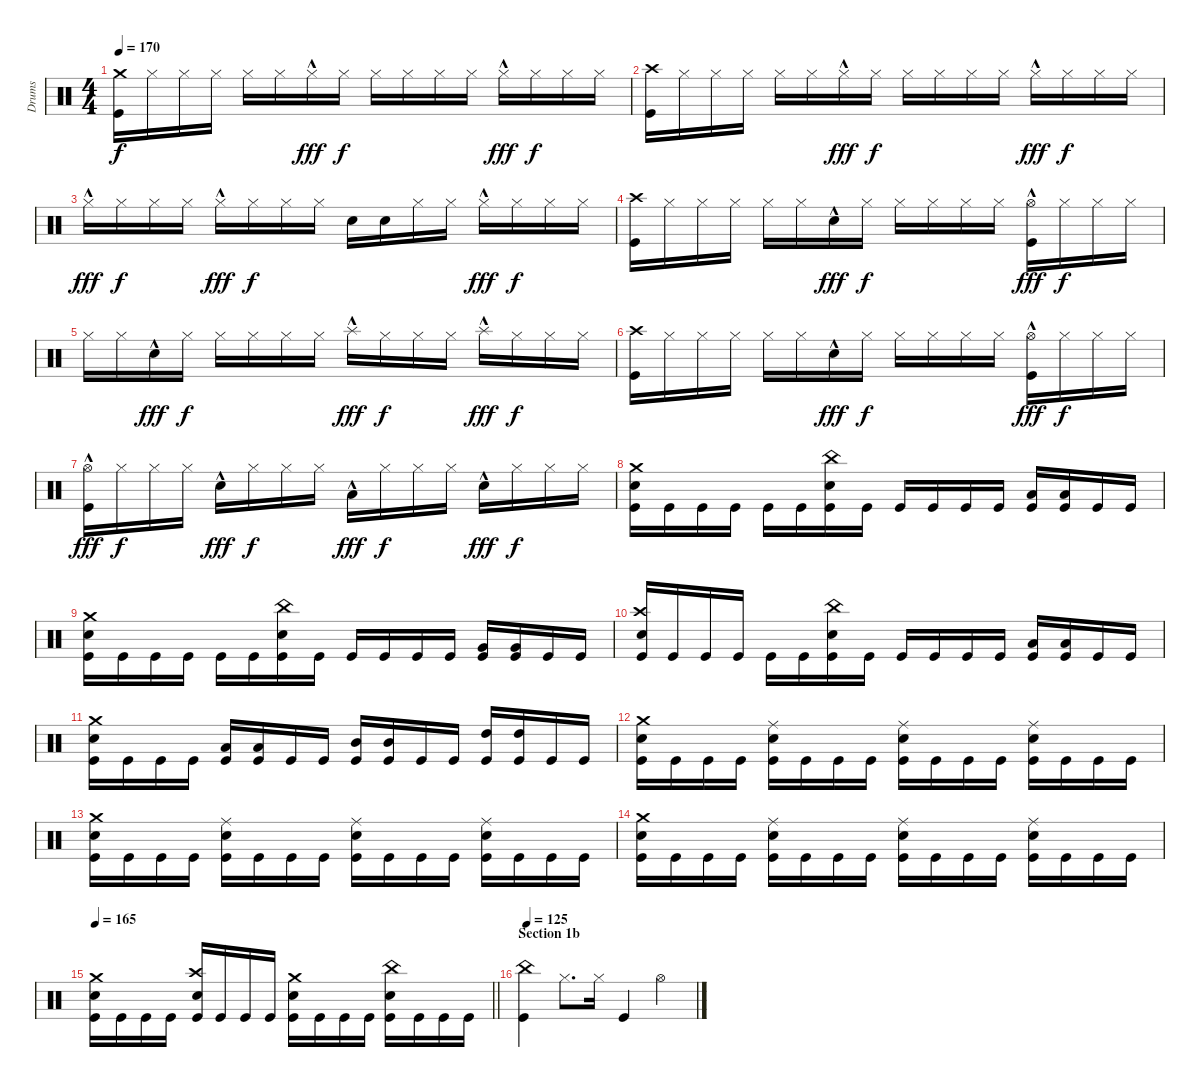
\track ("Drums" "Drums") {instrument percussion}
\staff {score}
\articulation defaults
\ts (4 4)
\tempo 170
\clef neutral
\ks c
("Crash medium (hit)" "Kick (hit)").16{dy f} "Hi-Hat (closed)".16 "Hi-Hat (closed)".16 "Hi-Hat (closed)".16 "Hi-Hat (closed)".16 "Hi-Hat (closed)".16 "Hi-Hat (closed)"{hac}.16{dy fff} "Hi-Hat (closed)".16{dy f} "Hi-Hat (closed)".16 "Hi-Hat (closed)".16 "Hi-Hat (closed)".16 "Hi-Hat (closed)".16 "Hi-Hat (closed)"{hac}.16{dy fff} "Hi-Hat (closed)".16{dy f} "Hi-Hat (closed)".16 "Hi-Hat (closed)".16 |
("Crash high (hit)" "Kick (hit)").16 "Hi-Hat (closed)".16 "Hi-Hat (closed)".16 "Hi-Hat (closed)".16 "Hi-Hat (closed)".16 "Hi-Hat (closed)".16 "Hi-Hat (closed)"{hac}.16{dy fff} "Hi-Hat (closed)".16{dy f} "Hi-Hat (closed)".16 "Hi-Hat (closed)".16 "Hi-Hat (closed)".16 "Hi-Hat (closed)".16 "Hi-Hat (closed)"{hac}.16{dy fff} "Hi-Hat (closed)".16{dy f} "Hi-Hat (closed)".16 "Hi-Hat (closed)".16 |
"Hi-Hat (closed)"{hac}.16{dy fff} "Hi-Hat (closed)".16{dy f} "Hi-Hat (closed)".16 "Hi-Hat (closed)".16 "Hi-Hat (closed)"{hac}.16{dy fff} "Hi-Hat (closed)".16{dy f} "Hi-Hat (closed)".16 "Hi-Hat (closed)".16 "Snare (hit) 2".16 "Snare (hit) 2".16 "Hi-Hat (closed)".16 "Hi-Hat (closed)".16 "Hi-Hat (closed)"{hac}.16{dy fff} "Hi-Hat (closed)".16{dy f} "Hi-Hat (closed)".16 "Hi-Hat (closed)".16 |
("Crash high (hit)" "Kick (hit)").16 "Hi-Hat (closed)".16 "Hi-Hat (closed)".16 "Hi-Hat (closed)".16 "Hi-Hat (closed)".16 "Hi-Hat (closed)".16 "Snare (hit) 2"{hac}.16{dy fff} "Hi-Hat (closed)".16{dy f} "Hi-Hat (closed)".16 "Hi-Hat (closed)".16 "Hi-Hat (closed)".16 "Hi-Hat (closed)".16 ("Hi-Hat (open)"{hac} "Kick (hit)"{hac}).16{dy fff} "Hi-Hat (closed)".16{dy f} "Hi-Hat (closed)".16 "Hi-Hat (closed)".16 |
"Hi-Hat (closed)".16 "Hi-Hat (closed)".16 "Snare (hit) 2"{hac}.16{dy fff} "Hi-Hat (closed)".16{dy f} "Hi-Hat (closed)".16 "Hi-Hat (closed)".16 "Hi-Hat (closed)".16 "Hi-Hat (closed)".16 "Splash (hit)"{hac}.16{dy fff} "Hi-Hat (closed)".16{dy f} "Hi-Hat (closed)".16 "Hi-Hat (closed)".16 "Splash (hit)"{hac}.16{dy fff} "Hi-Hat (closed)".16{dy f} "Hi-Hat (closed)".16 "Hi-Hat (closed)".16 |
("Crash high (hit)" "Kick (hit)").16 "Hi-Hat (closed)".16 "Hi-Hat (closed)".16 "Hi-Hat (closed)".16 "Hi-Hat (closed)".16 "Hi-Hat (closed)".16 "Snare (hit) 2"{hac}.16{dy fff} "Hi-Hat (closed)".16{dy f} "Hi-Hat (closed)".16 "Hi-Hat (closed)".16 "Hi-Hat (closed)".16 "Hi-Hat (closed)".16 ("Hi-Hat (open)"{hac} "Kick (hit)").16{dy fff} "Hi-Hat (closed)".16{dy f} "Hi-Hat (closed)".16 "Hi-Hat (closed)".16 |
("Hi-Hat (open)"{hac} "Kick (hit)").16{dy fff} "Hi-Hat (closed)".16{dy f} "Hi-Hat (closed)".16 "Hi-Hat (closed)".16 "Snare (hit) 2"{hac}.16{dy fff} "Hi-Hat (closed)".16{dy f} "Hi-Hat (closed)".16 "Hi-Hat (closed)".16 "Low Tom (hit)"{hac}.16{dy fff} "Hi-Hat (closed)".16{dy f} "Hi-Hat (closed)".16 "Hi-Hat (closed)".16 "Snare (hit) 2"{hac}.16{dy fff} "Hi-Hat (closed)".16{dy f} "Hi-Hat (closed)".16 "Hi-Hat (closed)".16 |
("Crash medium (hit)" "Snare (hit) 2" "Kick (hit)").16 "Kick (hit)".16 "Kick (hit)".16 "Kick (hit)".16 "Kick (hit)".16 "Kick (hit)".16 ("China (hit)" "Snare (hit) 2" "Kick (hit)").16 "Kick (hit)".16 "Kick (hit)".16 "Kick (hit)".16 "Kick (hit)".16 "Kick (hit)".16 ("Low Tom (hit)" "Kick (hit)").16 ("Low Tom (hit)" "Kick (hit)").16 "Kick (hit)".16 "Kick (hit)".16 |
("Crash medium (hit)" "Snare (hit) 2" "Kick (hit)").16 "Kick (hit)".16 "Kick (hit)".16 "Kick (hit)".16 "Kick (hit)".16 "Kick (hit)".16 ("China (hit)" "Snare (hit) 2" "Kick (hit)").16 "Kick (hit)".16 "Kick (hit)".16 "Kick (hit)".16 "Kick (hit)".16 "Kick (hit)".16 ("Very Low Tom (hit)" "Kick (hit)").16 ("Very Low Tom (hit)" "Kick (hit)").16 "Kick (hit)".16 "Kick (hit)".16 |
("Crash high (hit)" "Snare (hit) 2" "Kick (hit)").16 "Kick (hit)".16 "Kick (hit)".16 "Kick (hit)".16 "Kick (hit)".16 "Kick (hit)".16 ("China (hit)" "Snare (hit) 2" "Kick (hit)").16 "Kick (hit)".16 "Kick (hit)".16 "Kick (hit)".16 "Kick (hit)".16 "Kick (hit)".16 ("Low Floor Tom (hit)" "Kick (hit)").16 ("Low Floor Tom (hit)" "Kick (hit)").16 "Kick (hit)".16 "Kick (hit)".16 |
("Crash medium (hit)" "Snare (hit) 2" "Kick (hit)").16 "Kick (hit)".16 "Kick (hit)".16 "Kick (hit)".16 ("Low Tom (hit)" "Kick (hit)").16 ("Low Tom (hit)" "Kick (hit)").16 "Kick (hit)".16 "Kick (hit)".16 ("Mid Tom (hit)" "Kick (hit)").16 ("Mid Tom (hit)" "Kick (hit)").16 "Kick (hit)".16 "Kick (hit)".16 ("High Tom (hit)" "Kick (hit)").16 ("High Tom (hit)" "Kick (hit)").16 "Kick (hit)".16 "Kick (hit)".16 |
("Crash medium (hit)" "Snare (hit) 2" "Kick (hit)").16 "Kick (hit)".16 "Kick (hit)".16 "Kick (hit)".16 ("Ride (middle)" "Snare (hit) 2" "Kick (hit)").16 "Kick (hit)".16 "Kick (hit)".16 "Kick (hit)".16 ("Ride (middle)" "Snare (hit) 2" "Kick (hit)").16 "Kick (hit)".16 "Kick (hit)".16 "Kick (hit)".16 ("Ride (middle)" "Snare (hit) 2" "Kick (hit)").16 "Kick (hit)".16 "Kick (hit)".16 "Kick (hit)".16 |
("Crash medium (hit)" "Snare (hit) 2" "Kick (hit)").16 "Kick (hit)".16 "Kick (hit)".16 "Kick (hit)".16 ("Ride (middle)" "Snare (hit) 2" "Kick (hit)").16 "Kick (hit)".16 "Kick (hit)".16 "Kick (hit)".16 ("Ride (middle)" "Snare (hit) 2" "Kick (hit)").16 "Kick (hit)".16 "Kick (hit)".16 "Kick (hit)".16 ("Ride (middle)" "Snare (hit) 2" "Kick (hit)").16 "Kick (hit)".16 "Kick (hit)".16 "Kick (hit)".16 |
("Crash medium (hit)" "Snare (hit) 2" "Kick (hit)").16 "Kick (hit)".16 "Kick (hit)".16 "Kick (hit)".16 ("Ride (middle)" "Snare (hit) 2" "Kick (hit)").16 "Kick (hit)".16 "Kick (hit)".16 "Kick (hit)".16 ("Ride (middle)" "Snare (hit) 2" "Kick (hit)").16 "Kick (hit)".16 "Kick (hit)".16 "Kick (hit)".16 ("Ride (middle)" "Snare (hit) 2" "Kick (hit)").16 "Kick (hit)".16 "Kick (hit)".16 "Kick (hit)".16 |
\tempo 165
\barLineRight lightlight
("Crash medium (hit)" "Snare (hit) 2" "Kick (hit)").16 "Kick (hit)".16 "Kick (hit)".16 "Kick (hit)".16 ("Crash high (hit)" "Snare (hit) 2" "Kick (hit)").16 "Kick (hit)".16 "Kick (hit)".16 "Kick (hit)".16 ("Crash medium (hit)" "Snare (hit) 2" "Kick (hit)").16 "Kick (hit)".16 "Kick (hit)".16 "Kick (hit)".16 ("China (hit)" "Snare (hit) 2" "Kick (hit)").16 "Kick (hit)".16 "Kick (hit)".16 "Kick (hit)".16 |
\section ("" "Section 1b")
\tempo 125
("China (hit)" "Kick (hit)").4 "Hi-Hat (closed)".8{d} "Hi-Hat (closed)".16 "Kick (hit)".4 "Hi-Hat (open)".4
